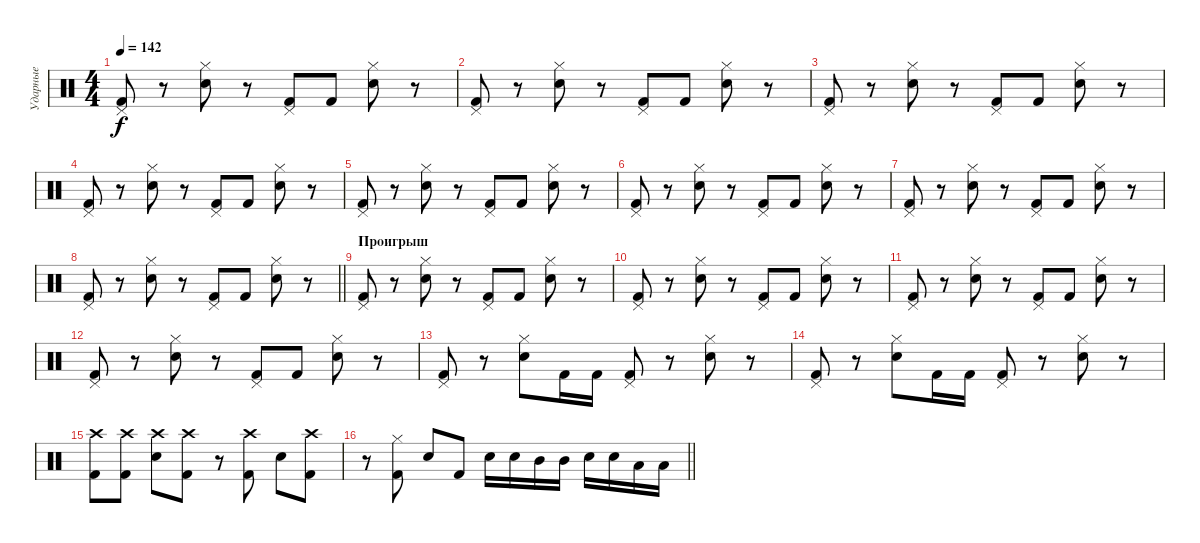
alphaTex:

\track ("Ударные" "Ударные") {instrument percussion}
\staff {score}
\articulation defaults
\ts (4 4)
\tempo 142
\clef neutral
\ks c
("Pedal Hi-Hat (hit)" "Kick (hit) 2").8{dy f} r.8 ("Hi-Hat (closed)" "Electric Snare (hit)").8 r.8 ("Pedal Hi-Hat (hit)" "Kick (hit) 2").8 "Kick (hit) 2".8 ("Hi-Hat (closed)" "Electric Snare (hit)").8 r.8 |
("Pedal Hi-Hat (hit)" "Kick (hit) 2").8 r.8 ("Hi-Hat (closed)" "Electric Snare (hit)").8 r.8 ("Pedal Hi-Hat (hit)" "Kick (hit) 2").8 "Kick (hit) 2".8 ("Hi-Hat (closed)" "Electric Snare (hit)").8 r.8 |
("Pedal Hi-Hat (hit)" "Kick (hit) 2").8 r.8 ("Hi-Hat (closed)" "Electric Snare (hit)").8 r.8 ("Pedal Hi-Hat (hit)" "Kick (hit) 2").8 "Kick (hit) 2".8 ("Hi-Hat (closed)" "Electric Snare (hit)").8 r.8 |
("Pedal Hi-Hat (hit)" "Kick (hit) 2").8 r.8 ("Hi-Hat (closed)" "Electric Snare (hit)").8 r.8 ("Pedal Hi-Hat (hit)" "Kick (hit) 2").8 "Kick (hit) 2".8 ("Hi-Hat (closed)" "Electric Snare (hit)").8 r.8 |
("Pedal Hi-Hat (hit)" "Kick (hit) 2").8 r.8 ("Hi-Hat (closed)" "Electric Snare (hit)").8 r.8 ("Pedal Hi-Hat (hit)" "Kick (hit) 2").8 "Kick (hit) 2".8 ("Hi-Hat (closed)" "Electric Snare (hit)").8 r.8 |
("Pedal Hi-Hat (hit)" "Kick (hit) 2").8 r.8 ("Hi-Hat (closed)" "Electric Snare (hit)").8 r.8 ("Pedal Hi-Hat (hit)" "Kick (hit) 2").8 "Kick (hit) 2".8 ("Hi-Hat (closed)" "Electric Snare (hit)").8 r.8 |
("Pedal Hi-Hat (hit)" "Kick (hit) 2").8 r.8 ("Hi-Hat (closed)" "Electric Snare (hit)").8 r.8 ("Pedal Hi-Hat (hit)" "Kick (hit) 2").8 "Kick (hit) 2".8 ("Hi-Hat (closed)" "Electric Snare (hit)").8 r.8 |
\barLineRight lightlight
("Pedal Hi-Hat (hit)" "Kick (hit) 2").8 r.8 ("Hi-Hat (closed)" "Electric Snare (hit)").8 r.8 ("Pedal Hi-Hat (hit)" "Kick (hit) 2").8 "Kick (hit) 2".8 ("Hi-Hat (closed)" "Electric Snare (hit)").8 r.8 |
\section ("" "Проигрыш")
("Pedal Hi-Hat (hit)" "Kick (hit) 2").8 r.8 ("Hi-Hat (closed)" "Electric Snare (hit)").8 r.8 ("Pedal Hi-Hat (hit)" "Kick (hit) 2").8 "Kick (hit) 2".8 ("Hi-Hat (closed)" "Electric Snare (hit)").8 r.8 |
("Pedal Hi-Hat (hit)" "Kick (hit) 2").8 r.8 ("Hi-Hat (closed)" "Electric Snare (hit)").8 r.8 ("Pedal Hi-Hat (hit)" "Kick (hit) 2").8 "Kick (hit) 2".8 ("Hi-Hat (closed)" "Electric Snare (hit)").8 r.8 |
("Pedal Hi-Hat (hit)" "Kick (hit) 2").8 r.8 ("Hi-Hat (closed)" "Electric Snare (hit)").8 r.8 ("Pedal Hi-Hat (hit)" "Kick (hit) 2").8 "Kick (hit) 2".8 ("Hi-Hat (closed)" "Electric Snare (hit)").8 r.8 |
("Pedal Hi-Hat (hit)" "Kick (hit) 2").8 r.8 ("Hi-Hat (closed)" "Electric Snare (hit)").8 r.8 ("Pedal Hi-Hat (hit)" "Kick (hit) 2").8 "Kick (hit) 2".8 ("Hi-Hat (closed)" "Electric Snare (hit)").8 r.8 |
("Pedal Hi-Hat (hit)" "Kick (hit) 2").8 r.8 ("Hi-Hat (closed)" "Electric Snare (hit)").8 "Kick (hit) 2".16 "Kick (hit) 2".16 ("Pedal Hi-Hat (hit)" "Kick (hit) 2").8 r.8 ("Hi-Hat (closed)" "Electric Snare (hit)").8 r.8 |
("Pedal Hi-Hat (hit)" "Kick (hit) 2").8 r.8 ("Hi-Hat (closed)" "Electric Snare (hit)").8 "Kick (hit) 2".16 "Kick (hit) 2".16 ("Pedal Hi-Hat (hit)" "Kick (hit) 2").8 r.8 ("Hi-Hat (closed)" "Electric Snare (hit)").8 r.8 |
("Crash high (hit)" "Kick (hit) 2").8 ("Crash high (hit)" "Kick (hit) 2").8 ("Crash high (hit)" "Electric Snare (hit)").8 ("Crash high (hit)" "Kick (hit) 2").8 r.8 ("Crash high (hit)" "Kick (hit) 2").8 "Electric Snare (hit)".8 ("Crash high (hit)" "Kick (hit) 2").8 |
\barLineRight lightlight
r.8 ("Hi-Hat (closed)" "Kick (hit) 2").8 "Electric Snare (hit)".8 "Kick (hit) 2".8 "Electric Snare (hit)".16 "Electric Snare (hit)".16 "Mid Tom (hit)".16 "Mid Tom (hit)".16 "Electric Snare (hit)".16 "Electric Snare (hit)".16 "Low Tom (hit)".16 "Low Tom (hit)".16
